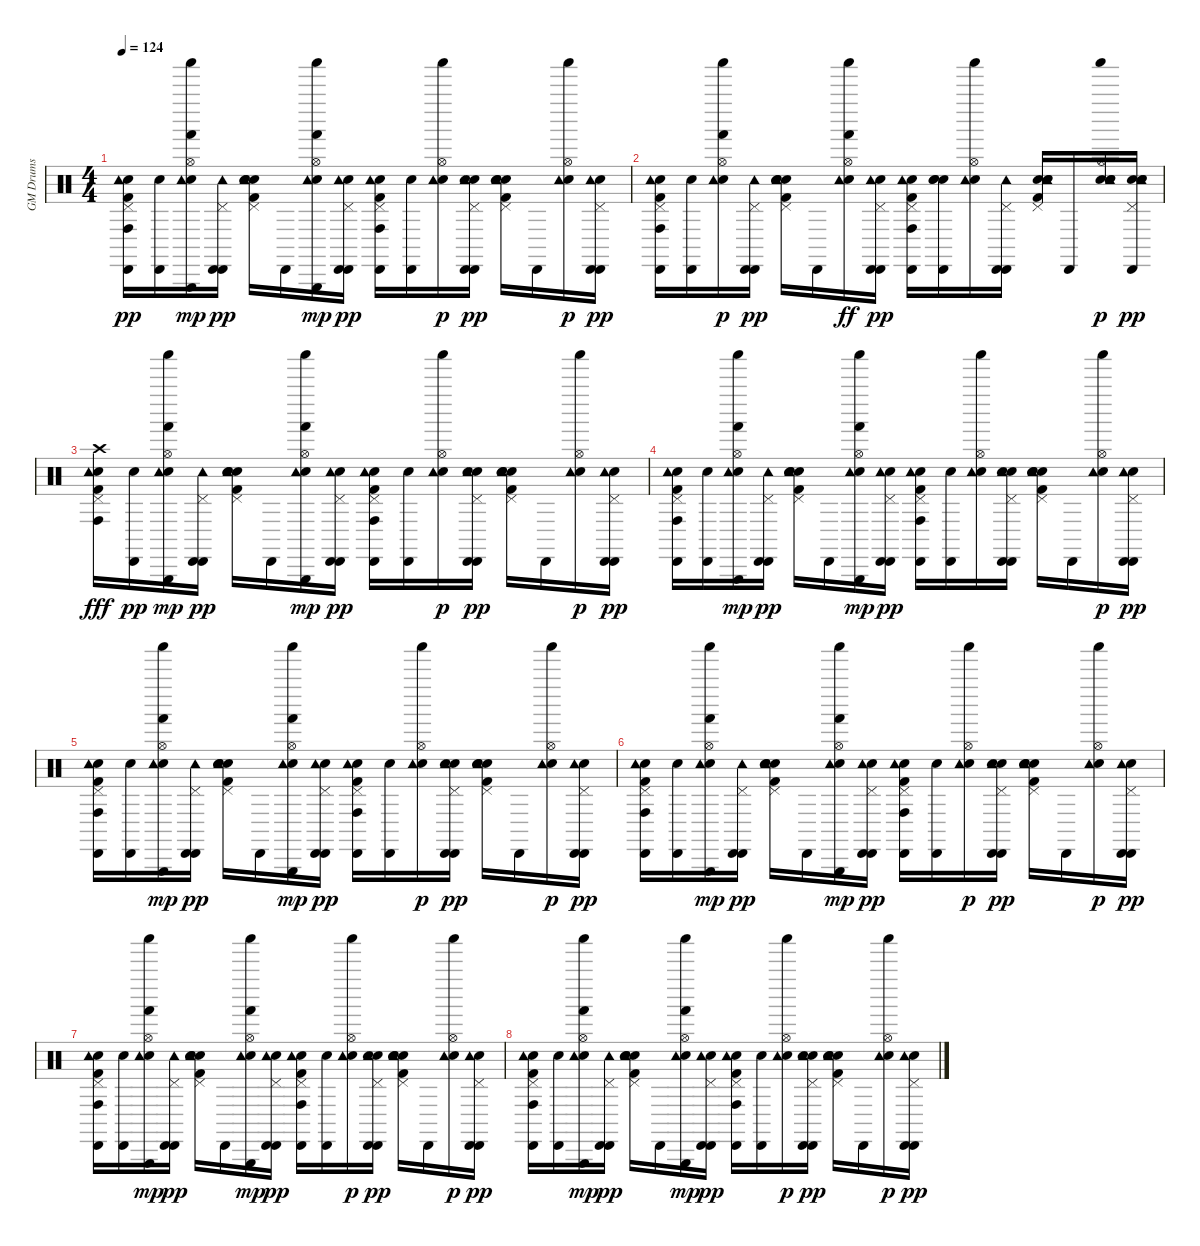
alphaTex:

\track ("GM Drums" "GM Drums") {instrument percussion}
\staff {score}
\articulation defaults
\ts (4 4)
\tempo 124
\clef neutral
\ks c
("Snare (hit)" "Kick (hit) 2" "Pedal Hi-Hat (hit)" "Tambourine (hit)" "Conga high (hit)" "Cabasa (hit)").16{dy pp} ("Snare (hit)" "Cabasa (hit)").16 ("Snare (hit)" "Hi-Hat (open)" "Tambourine (hit)" "Hand (hit)" "Triangle (hit)" "Shaker (hit)").16{dy mp} ("Pedal Hi-Hat (hit)" "Tambourine (hit)" "Cabasa (hit)" "Cabasa (hit)").16{dy pp} ("Snare (hit)" "Kick (hit) 2" "Snare (hit) 2" "Hand Clap (hit)" "Pedal Hi-Hat (hit)" "Tambourine (hit)").16 "Cabasa (hit)".16 ("Snare (hit)" "Hi-Hat (open)" "Tambourine (hit)" "Hand (hit)" "Triangle (hit)" "Shaker (hit)").16{dy mp} ("Snare (hit)" "Pedal Hi-Hat (hit)" "Tambourine (hit)" "Cabasa (hit)" "Cabasa (hit)").16{dy pp} ("Snare (hit)" "Kick (hit) 2" "Pedal Hi-Hat (hit)" "Tambourine (hit)" "Conga high (hit)" "Cabasa (hit)").16 ("Snare (hit)" "Cabasa (hit)").16 ("Snare (hit)" "Hi-Hat (open)" "Tambourine (hit)" "Shaker (hit)").16{dy p} ("Snare (hit) 2" "Hand Clap (hit)" "Pedal Hi-Hat (hit)" "Tambourine (hit)" "Cabasa (hit)" "Cabasa (hit)").16{dy pp} ("Snare (hit)" "Kick (hit) 2" "Snare (hit) 2" "Hand Clap (hit)" "Pedal Hi-Hat (hit)" "Tambourine (hit)").16 "Cabasa (hit)".16 ("Snare (hit)" "Hi-Hat (open)" "Tambourine (hit)" "Shaker (hit)").16{dy p} ("Snare (hit)" "Pedal Hi-Hat (hit)" "Tambourine (hit)" "Cabasa (hit)" "Cabasa (hit)").16{dy pp} |
("Snare (hit)" "Kick (hit) 2" "Pedal Hi-Hat (hit)" "Tambourine (hit)" "Conga high (hit)" "Cabasa (hit)").16 ("Snare (hit)" "Cabasa (hit)").16 ("Snare (hit)" "Hi-Hat (open)" "Tambourine (hit)" "Hand (hit)" "Shaker (hit)").16{dy p} ("Pedal Hi-Hat (hit)" "Tambourine (hit)" "Cabasa (hit)" "Cabasa (hit)").16{dy pp} ("Snare (hit)" "Kick (hit) 2" "Snare (hit) 2" "Hand Clap (hit)" "Pedal Hi-Hat (hit)" "Tambourine (hit)").16 "Cabasa (hit)".16 ("Snare (hit)" "Hi-Hat (open)" "Tambourine (hit)" "Hand (hit)" "Shaker (hit)").16{dy ff} ("Snare (hit)" "Pedal Hi-Hat (hit)" "Tambourine (hit)" "Cabasa (hit)" "Cabasa (hit)").16{dy pp} ("Snare (hit)" "Kick (hit) 2" "Pedal Hi-Hat (hit)" "Tambourine (hit)" "Conga high (hit)" "Cabasa (hit)").16 ("Snare (hit)" "Snare (hit) 2" "Hand Clap (hit)" "Cabasa (hit)").16 ("Snare (hit)" "Hi-Hat (open)" "Tambourine (hit)" "Shaker (hit)").16 ("Pedal Hi-Hat (hit)" "Tambourine (hit)" "Cabasa (hit)" "Cabasa (hit)").16 ("Snare (hit)" "Kick (hit) 2" "Snare (hit) 2" "Hand Clap (hit)" "Pedal Hi-Hat (hit)" "Tambourine (hit)").16 "Cabasa (hit)".16 ("Snare (hit)" "Snare (hit) 2" "Hand Clap (hit)" "Hi-Hat (open)" "Tambourine (hit)" "Shaker (hit)").16{dy p} ("Snare (hit)" "Snare (hit) 2" "Hand Clap (hit)" "Pedal Hi-Hat (hit)" "Tambourine (hit)" "Cabasa (hit)").16{dy pp} |
("Snare (hit)" "Kick (hit) 2" "Pedal Hi-Hat (hit)" "Crash high (hit)" "Tambourine (hit)" "Conga high (hit)").16{dy fff} ("Snare (hit)" "Cabasa (hit)").16{dy pp} ("Snare (hit)" "Hi-Hat (open)" "Tambourine (hit)" "Hand (hit)" "Triangle (hit)" "Shaker (hit)").16{dy mp} ("Pedal Hi-Hat (hit)" "Tambourine (hit)" "Cabasa (hit)" "Cabasa (hit)").16{dy pp} ("Snare (hit)" "Kick (hit) 2" "Snare (hit) 2" "Hand Clap (hit)" "Pedal Hi-Hat (hit)" "Tambourine (hit)").16 "Cabasa (hit)".16 ("Snare (hit)" "Hi-Hat (open)" "Tambourine (hit)" "Hand (hit)" "Triangle (hit)" "Shaker (hit)").16{dy mp} ("Snare (hit)" "Pedal Hi-Hat (hit)" "Tambourine (hit)" "Cabasa (hit)" "Cabasa (hit)").16{dy pp} ("Snare (hit)" "Kick (hit) 2" "Pedal Hi-Hat (hit)" "Tambourine (hit)" "Conga high (hit)" "Cabasa (hit)").16 ("Snare (hit)" "Cabasa (hit)").16 ("Snare (hit)" "Hi-Hat (open)" "Tambourine (hit)" "Shaker (hit)").16{dy p} ("Snare (hit) 2" "Hand Clap (hit)" "Pedal Hi-Hat (hit)" "Tambourine (hit)" "Cabasa (hit)" "Cabasa (hit)").16{dy pp} ("Snare (hit)" "Kick (hit) 2" "Snare (hit) 2" "Hand Clap (hit)" "Pedal Hi-Hat (hit)" "Tambourine (hit)").16 "Cabasa (hit)".16 ("Snare (hit)" "Hi-Hat (open)" "Tambourine (hit)" "Shaker (hit)").16{dy p} ("Snare (hit)" "Pedal Hi-Hat (hit)" "Tambourine (hit)" "Cabasa (hit)" "Cabasa (hit)").16{dy pp} |
("Snare (hit)" "Kick (hit) 2" "Pedal Hi-Hat (hit)" "Tambourine (hit)" "Conga high (hit)" "Cabasa (hit)").16 ("Snare (hit)" "Cabasa (hit)").16 ("Snare (hit)" "Hi-Hat (open)" "Tambourine (hit)" "Hand (hit)" "Triangle (hit)" "Shaker (hit)").16{dy mp} ("Pedal Hi-Hat (hit)" "Tambourine (hit)" "Cabasa (hit)" "Cabasa (hit)").16{dy pp} ("Snare (hit)" "Kick (hit) 2" "Snare (hit) 2" "Hand Clap (hit)" "Pedal Hi-Hat (hit)" "Tambourine (hit)").16 "Cabasa (hit)".16 ("Snare (hit)" "Hi-Hat (open)" "Tambourine (hit)" "Hand (hit)" "Triangle (hit)" "Shaker (hit)").16{dy mp} ("Snare (hit)" "Pedal Hi-Hat (hit)" "Tambourine (hit)" "Cabasa (hit)" "Cabasa (hit)").16{dy pp} ("Snare (hit)" "Kick (hit) 2" "Pedal Hi-Hat (hit)" "Tambourine (hit)" "Conga high (hit)" "Cabasa (hit)").16 ("Snare (hit)" "Cabasa (hit)").16 ("Snare (hit)" "Hi-Hat (open)" "Tambourine (hit)" "Shaker (hit)").16 ("Snare (hit) 2" "Hand Clap (hit)" "Pedal Hi-Hat (hit)" "Tambourine (hit)" "Cabasa (hit)" "Cabasa (hit)").16 ("Snare (hit)" "Kick (hit) 2" "Snare (hit) 2" "Hand Clap (hit)" "Pedal Hi-Hat (hit)" "Tambourine (hit)").16 "Cabasa (hit)".16 ("Snare (hit)" "Hi-Hat (open)" "Tambourine (hit)" "Shaker (hit)").16{dy p} ("Snare (hit)" "Pedal Hi-Hat (hit)" "Tambourine (hit)" "Cabasa (hit)" "Cabasa (hit)").16{dy pp} |
("Snare (hit)" "Kick (hit) 2" "Pedal Hi-Hat (hit)" "Tambourine (hit)" "Conga high (hit)" "Cabasa (hit)").16 ("Snare (hit)" "Cabasa (hit)").16 ("Snare (hit)" "Hi-Hat (open)" "Tambourine (hit)" "Hand (hit)" "Triangle (hit)" "Shaker (hit)").16{dy mp} ("Pedal Hi-Hat (hit)" "Tambourine (hit)" "Cabasa (hit)" "Cabasa (hit)").16{dy pp} ("Snare (hit)" "Kick (hit) 2" "Snare (hit) 2" "Hand Clap (hit)" "Pedal Hi-Hat (hit)" "Tambourine (hit)").16 "Cabasa (hit)".16 ("Snare (hit)" "Hi-Hat (open)" "Tambourine (hit)" "Hand (hit)" "Triangle (hit)" "Shaker (hit)").16{dy mp} ("Snare (hit)" "Pedal Hi-Hat (hit)" "Tambourine (hit)" "Cabasa (hit)" "Cabasa (hit)").16{dy pp} ("Snare (hit)" "Kick (hit) 2" "Pedal Hi-Hat (hit)" "Tambourine (hit)" "Conga high (hit)" "Cabasa (hit)").16 ("Snare (hit)" "Cabasa (hit)").16 ("Snare (hit)" "Hi-Hat (open)" "Tambourine (hit)" "Shaker (hit)").16{dy p} ("Snare (hit) 2" "Hand Clap (hit)" "Pedal Hi-Hat (hit)" "Tambourine (hit)" "Cabasa (hit)" "Cabasa (hit)").16{dy pp} ("Snare (hit)" "Kick (hit) 2" "Snare (hit) 2" "Hand Clap (hit)" "Pedal Hi-Hat (hit)" "Tambourine (hit)").16 "Cabasa (hit)".16 ("Snare (hit)" "Hi-Hat (open)" "Tambourine (hit)" "Shaker (hit)").16{dy p} ("Snare (hit)" "Pedal Hi-Hat (hit)" "Tambourine (hit)" "Cabasa (hit)" "Cabasa (hit)").16{dy pp} |
("Snare (hit)" "Kick (hit) 2" "Pedal Hi-Hat (hit)" "Tambourine (hit)" "Conga high (hit)" "Cabasa (hit)").16 ("Snare (hit)" "Cabasa (hit)").16 ("Snare (hit)" "Hi-Hat (open)" "Tambourine (hit)" "Hand (hit)" "Triangle (hit)" "Shaker (hit)").16{dy mp} ("Pedal Hi-Hat (hit)" "Tambourine (hit)" "Cabasa (hit)" "Cabasa (hit)").16{dy pp} ("Snare (hit)" "Kick (hit) 2" "Snare (hit) 2" "Hand Clap (hit)" "Pedal Hi-Hat (hit)" "Tambourine (hit)").16 "Cabasa (hit)".16 ("Snare (hit)" "Hi-Hat (open)" "Tambourine (hit)" "Hand (hit)" "Triangle (hit)" "Shaker (hit)").16{dy mp} ("Snare (hit)" "Pedal Hi-Hat (hit)" "Tambourine (hit)" "Cabasa (hit)" "Cabasa (hit)").16{dy pp} ("Snare (hit)" "Kick (hit) 2" "Pedal Hi-Hat (hit)" "Tambourine (hit)" "Conga high (hit)" "Cabasa (hit)").16 ("Snare (hit)" "Cabasa (hit)").16 ("Snare (hit)" "Hi-Hat (open)" "Tambourine (hit)" "Shaker (hit)").16{dy p} ("Snare (hit) 2" "Hand Clap (hit)" "Pedal Hi-Hat (hit)" "Tambourine (hit)" "Cabasa (hit)" "Cabasa (hit)").16{dy pp} ("Snare (hit)" "Kick (hit) 2" "Snare (hit) 2" "Hand Clap (hit)" "Pedal Hi-Hat (hit)" "Tambourine (hit)").16 "Cabasa (hit)".16 ("Snare (hit)" "Hi-Hat (open)" "Tambourine (hit)" "Shaker (hit)").16{dy p} ("Snare (hit)" "Pedal Hi-Hat (hit)" "Tambourine (hit)" "Cabasa (hit)" "Cabasa (hit)").16{dy pp} |
("Snare (hit)" "Kick (hit) 2" "Pedal Hi-Hat (hit)" "Tambourine (hit)" "Conga high (hit)" "Cabasa (hit)").16 ("Snare (hit)" "Cabasa (hit)").16 ("Snare (hit)" "Hi-Hat (open)" "Tambourine (hit)" "Hand (hit)" "Triangle (hit)" "Shaker (hit)").16{dy mp} ("Pedal Hi-Hat (hit)" "Tambourine (hit)" "Cabasa (hit)" "Cabasa (hit)").16{dy pp} ("Snare (hit)" "Kick (hit) 2" "Snare (hit) 2" "Hand Clap (hit)" "Pedal Hi-Hat (hit)" "Tambourine (hit)").16 "Cabasa (hit)".16 ("Snare (hit)" "Hi-Hat (open)" "Tambourine (hit)" "Hand (hit)" "Triangle (hit)" "Shaker (hit)").16{dy mp} ("Snare (hit)" "Pedal Hi-Hat (hit)" "Tambourine (hit)" "Cabasa (hit)" "Cabasa (hit)").16{dy pp} ("Snare (hit)" "Kick (hit) 2" "Pedal Hi-Hat (hit)" "Tambourine (hit)" "Conga high (hit)" "Cabasa (hit)").16 ("Snare (hit)" "Cabasa (hit)").16 ("Snare (hit)" "Hi-Hat (open)" "Tambourine (hit)" "Shaker (hit)").16{dy p} ("Snare (hit) 2" "Hand Clap (hit)" "Pedal Hi-Hat (hit)" "Tambourine (hit)" "Cabasa (hit)" "Cabasa (hit)").16{dy pp} ("Snare (hit)" "Kick (hit) 2" "Snare (hit) 2" "Hand Clap (hit)" "Pedal Hi-Hat (hit)" "Tambourine (hit)").16 "Cabasa (hit)".16 ("Snare (hit)" "Hi-Hat (open)" "Tambourine (hit)" "Shaker (hit)").16{dy p} ("Snare (hit)" "Pedal Hi-Hat (hit)" "Tambourine (hit)" "Cabasa (hit)" "Cabasa (hit)").16{dy pp} |
("Snare (hit)" "Kick (hit) 2" "Pedal Hi-Hat (hit)" "Tambourine (hit)" "Conga high (hit)" "Cabasa (hit)").16 ("Snare (hit)" "Cabasa (hit)").16 ("Snare (hit)" "Hi-Hat (open)" "Tambourine (hit)" "Hand (hit)" "Triangle (hit)" "Shaker (hit)").16{dy mp} ("Pedal Hi-Hat (hit)" "Tambourine (hit)" "Cabasa (hit)" "Cabasa (hit)").16{dy pp} ("Snare (hit)" "Kick (hit) 2" "Snare (hit) 2" "Hand Clap (hit)" "Pedal Hi-Hat (hit)" "Tambourine (hit)").16 "Cabasa (hit)".16 ("Snare (hit)" "Hi-Hat (open)" "Tambourine (hit)" "Hand (hit)" "Triangle (hit)" "Shaker (hit)").16{dy mp} ("Snare (hit)" "Pedal Hi-Hat (hit)" "Tambourine (hit)" "Cabasa (hit)" "Cabasa (hit)").16{dy pp} ("Snare (hit)" "Kick (hit) 2" "Pedal Hi-Hat (hit)" "Tambourine (hit)" "Conga high (hit)" "Cabasa (hit)").16 ("Snare (hit)" "Cabasa (hit)").16 ("Snare (hit)" "Hi-Hat (open)" "Tambourine (hit)" "Shaker (hit)").16{dy p} ("Snare (hit) 2" "Hand Clap (hit)" "Pedal Hi-Hat (hit)" "Tambourine (hit)" "Cabasa (hit)" "Cabasa (hit)").16{dy pp} ("Snare (hit)" "Kick (hit) 2" "Snare (hit) 2" "Hand Clap (hit)" "Pedal Hi-Hat (hit)" "Tambourine (hit)").16 "Cabasa (hit)".16 ("Snare (hit)" "Hi-Hat (open)" "Tambourine (hit)" "Shaker (hit)").16{dy p} ("Snare (hit)" "Pedal Hi-Hat (hit)" "Tambourine (hit)" "Cabasa (hit)" "Cabasa (hit)").16{dy pp}
